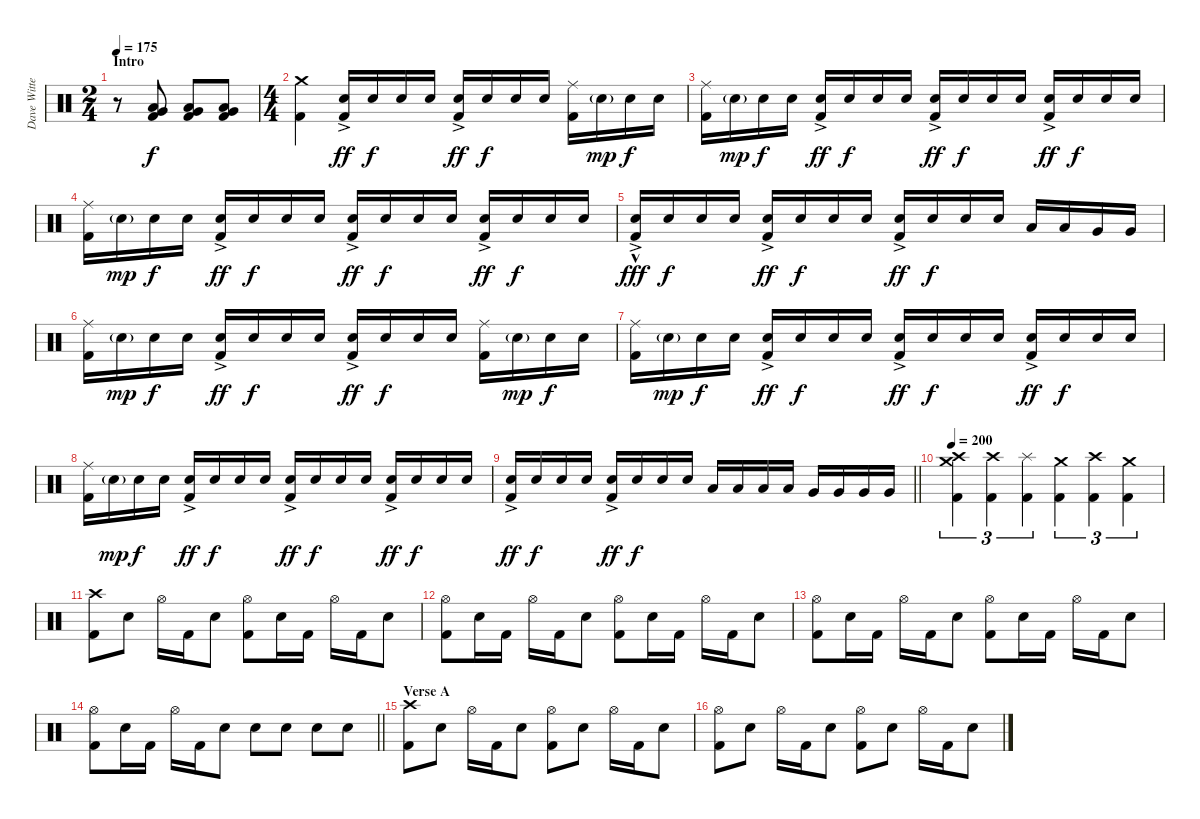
\track ("Dave Witte" "Dave Witte") {instrument percussion}
\staff {score}
\articulation defaults
\ts (2 4)
\section ("" "Intro")
\tempo 175
\clef neutral
\ks c
r.8{dy f} ("Very Low Tom (hit)" "Low Floor Tom (hit)" "Kick (hit) 2").8 ("Very Low Tom (hit)" "Low Floor Tom (hit)" "Kick (hit) 2").8 ("Very Low Tom (hit)" "Low Floor Tom (hit)" "Kick (hit) 2").8 |
\ts (4 4)
("Crash medium (hit)" "Kick (hit) 2").4 ("Electric Snare (hit)"{ac} "Kick (hit) 2").16{dy ff} "Electric Snare (hit)".16{dy f} "Electric Snare (hit)".16 "Electric Snare (hit)".16 ("Electric Snare (hit)"{ac} "Kick (hit) 2").16{dy ff} "Electric Snare (hit)".16{dy f} "Electric Snare (hit)".16 "Electric Snare (hit)".16 ("Ride (middle)" "Kick (hit) 2").16 "Electric Snare (hit)"{g}.16{dy mp} "Electric Snare (hit)".16{dy f} "Electric Snare (hit)".16 |
("Ride (middle)" "Kick (hit) 2").16 "Electric Snare (hit)"{g}.16{dy mp} "Electric Snare (hit)".16{dy f} "Electric Snare (hit)".16 ("Electric Snare (hit)"{ac} "Kick (hit) 2").16{dy ff} "Electric Snare (hit)".16{dy f} "Electric Snare (hit)".16 "Electric Snare (hit)".16 ("Electric Snare (hit)"{ac} "Kick (hit) 2").16{dy ff} "Electric Snare (hit)".16{dy f} "Electric Snare (hit)".16 "Electric Snare (hit)".16 ("Electric Snare (hit)"{ac} "Kick (hit) 2").16{dy ff} "Electric Snare (hit)".16{dy f} "Electric Snare (hit)".16 "Electric Snare (hit)".16 |
("Ride (middle)" "Kick (hit) 2").16 "Electric Snare (hit)"{g}.16{dy mp} "Electric Snare (hit)".16{dy f} "Electric Snare (hit)".16 ("Electric Snare (hit)"{ac} "Kick (hit) 2").16{dy ff} "Electric Snare (hit)".16{dy f} "Electric Snare (hit)".16 "Electric Snare (hit)".16 ("Electric Snare (hit)"{ac} "Kick (hit) 2").16{dy ff} "Electric Snare (hit)".16{dy f} "Electric Snare (hit)".16 "Electric Snare (hit)".16 ("Electric Snare (hit)"{ac} "Kick (hit) 2").16{dy ff} "Electric Snare (hit)".16{dy f} "Electric Snare (hit)".16 "Electric Snare (hit)".16 |
("Electric Snare (hit)"{ac} "Kick (hit) 2"{hac}).16{dy fff} "Electric Snare (hit)".16{dy f} "Electric Snare (hit)".16 "Electric Snare (hit)".16 ("Electric Snare (hit)"{ac} "Kick (hit) 2").16{dy ff} "Electric Snare (hit)".16{dy f} "Electric Snare (hit)".16 "Electric Snare (hit)".16 ("Electric Snare (hit)"{ac} "Kick (hit) 2").16{dy ff} "Electric Snare (hit)".16{dy f} "Electric Snare (hit)".16 "Electric Snare (hit)".16 "Low Tom (hit)".16 "Low Tom (hit)".16 "Very Low Tom (hit)".16 "Very Low Tom (hit)".16 |
("Ride (middle)" "Kick (hit) 2").16 "Electric Snare (hit)"{g}.16{dy mp} "Electric Snare (hit)".16{dy f} "Electric Snare (hit)".16 ("Electric Snare (hit)"{ac} "Kick (hit) 2").16{dy ff} "Electric Snare (hit)".16{dy f} "Electric Snare (hit)".16 "Electric Snare (hit)".16 ("Electric Snare (hit)"{ac} "Kick (hit) 2").16{dy ff} "Electric Snare (hit)".16{dy f} "Electric Snare (hit)".16 "Electric Snare (hit)".16 ("Ride (middle)" "Kick (hit) 2").16 "Electric Snare (hit)"{g}.16{dy mp} "Electric Snare (hit)".16{dy f} "Electric Snare (hit)".16 |
("Ride (middle)" "Kick (hit) 2").16 "Electric Snare (hit)"{g}.16{dy mp} "Electric Snare (hit)".16{dy f} "Electric Snare (hit)".16 ("Electric Snare (hit)"{ac} "Kick (hit) 2").16{dy ff} "Electric Snare (hit)".16{dy f} "Electric Snare (hit)".16 "Electric Snare (hit)".16 ("Electric Snare (hit)"{ac} "Kick (hit) 2").16{dy ff} "Electric Snare (hit)".16{dy f} "Electric Snare (hit)".16 "Electric Snare (hit)".16 ("Electric Snare (hit)"{ac} "Kick (hit) 2").16{dy ff} "Electric Snare (hit)".16{dy f} "Electric Snare (hit)".16 "Electric Snare (hit)".16 |
("Ride (middle)" "Kick (hit) 2").16 "Electric Snare (hit)"{g}.16{dy mp} "Electric Snare (hit)".16{dy f} "Electric Snare (hit)".16 ("Electric Snare (hit)"{ac} "Kick (hit) 2").16{dy ff} "Electric Snare (hit)".16{dy f} "Electric Snare (hit)".16 "Electric Snare (hit)".16 ("Electric Snare (hit)"{ac} "Kick (hit) 2").16{dy ff} "Electric Snare (hit)".16{dy f} "Electric Snare (hit)".16 "Electric Snare (hit)".16 ("Electric Snare (hit)"{ac} "Kick (hit) 2").16{dy ff} "Electric Snare (hit)".16{dy f} "Electric Snare (hit)".16 "Electric Snare (hit)".16 |
\barLineRight lightlight
("Electric Snare (hit)"{ac} "Kick (hit) 2").16{dy ff} "Electric Snare (hit)".16{dy f} "Electric Snare (hit)".16 "Electric Snare (hit)".16 ("Electric Snare (hit)"{ac} "Kick (hit) 2").16{dy ff} "Electric Snare (hit)".16{dy f} "Electric Snare (hit)".16 "Electric Snare (hit)".16 "Low Tom (hit)".16 "Low Tom (hit)".16 "Low Tom (hit)".16 "Low Tom (hit)".16 "Very Low Tom (hit)".16 "Very Low Tom (hit)".16 "Very Low Tom (hit)".16 "Very Low Tom (hit)".16 |
\tempo 200
("Crash medium (hit)" "Crash high (hit)" "Kick (hit) 2").4{tu (3 2)} ("Crash high (hit)" "Kick (hit) 2").4{tu (3 2)} ("Splash (hit)" "Kick (hit) 2").4{tu (3 2)} ("Crash medium (hit)" "Kick (hit) 2").4{tu (3 2)} ("Crash high (hit)" "Kick (hit) 2").4{tu (3 2)} ("Crash medium (hit)" "Kick (hit) 2").4{tu (3 2)} |
("Crash high (hit)" "Kick (hit) 2").8 "Electric Snare (hit)".8 "Hi-Hat (open)".16 "Kick (hit) 2".16 "Electric Snare (hit)".8 ("Hi-Hat (open)" "Kick (hit) 2").8 "Electric Snare (hit)".16 "Kick (hit) 2".16 "Hi-Hat (open)".16 "Kick (hit) 2".16 "Electric Snare (hit)".8 |
("Hi-Hat (open)" "Kick (hit) 2").8 "Electric Snare (hit)".16 "Kick (hit) 2".16 "Hi-Hat (open)".16 "Kick (hit) 2".16 "Electric Snare (hit)".8 ("Hi-Hat (open)" "Kick (hit) 2").8 "Electric Snare (hit)".16 "Kick (hit) 2".16 "Hi-Hat (open)".16 "Kick (hit) 2".16 "Electric Snare (hit)".8 |
("Hi-Hat (open)" "Kick (hit) 2").8 "Electric Snare (hit)".16 "Kick (hit) 2".16 "Hi-Hat (open)".16 "Kick (hit) 2".16 "Electric Snare (hit)".8 ("Hi-Hat (open)" "Kick (hit) 2").8 "Electric Snare (hit)".16 "Kick (hit) 2".16 "Hi-Hat (open)".16 "Kick (hit) 2".16 "Electric Snare (hit)".8 |
\barLineRight lightlight
("Hi-Hat (open)" "Kick (hit) 2").8 "Electric Snare (hit)".16 "Kick (hit) 2".16 "Hi-Hat (open)".16 "Kick (hit) 2".16 "Electric Snare (hit)".8 "Electric Snare (hit)".8 "Electric Snare (hit)".8 "Electric Snare (hit)".8 "Electric Snare (hit)".8 |
\section ("" "Verse A")
("Crash high (hit)" "Kick (hit) 2").8 "Electric Snare (hit)".8 "Hi-Hat (open)".16 "Kick (hit) 2".16 "Electric Snare (hit)".8 ("Hi-Hat (open)" "Kick (hit) 2").8 "Electric Snare (hit)".8 "Hi-Hat (open)".16 "Kick (hit) 2".16 "Electric Snare (hit)".8 |
("Hi-Hat (open)" "Kick (hit) 2").8 "Electric Snare (hit)".8 "Hi-Hat (open)".16 "Kick (hit) 2".16 "Electric Snare (hit)".8 ("Hi-Hat (open)" "Kick (hit) 2").8 "Electric Snare (hit)".8 "Hi-Hat (open)".16 "Kick (hit) 2".16 "Electric Snare (hit)".8
